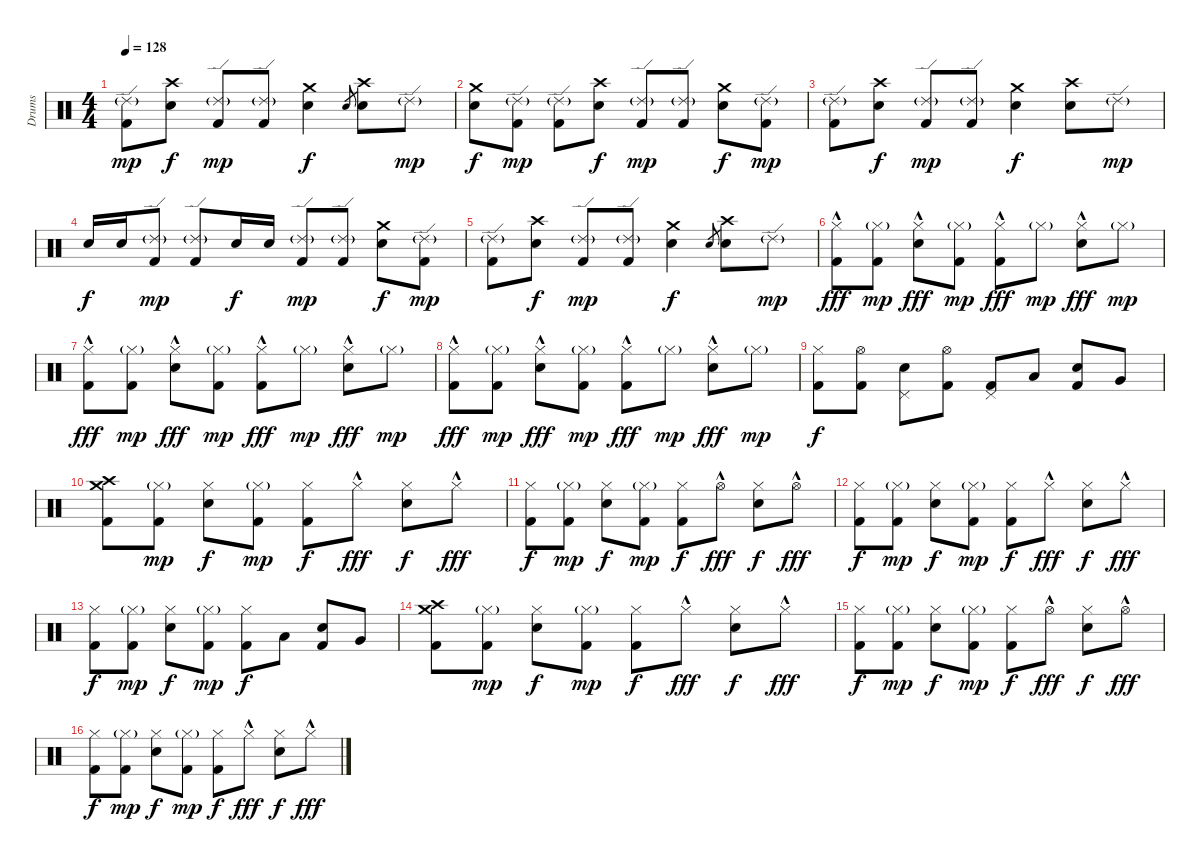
\track ("Drums" "Drums") {instrument percussion}
\staff {score}
\articulation defaults
\ts (4 4)
\tempo 128
\clef neutral
\ks c
("Ride (edge) 2"{g} "Kick (hit) 2").8{dy mp} ("Crash high (hit)" "Snare (hit) 2").8{dy f} ("Ride (edge) 2"{g} "Kick (hit) 2").8{dy mp} ("Ride (edge) 2"{g} "Kick (hit) 2").8 ("Crash medium (hit)" "Snare (hit) 2").4{dy f} "Snare (hit) 2".8{gr} ("Crash high (hit)" "Snare (hit) 2").8 "Ride (edge) 2"{g}.8{dy mp} |
("Crash medium (hit)" "Snare (hit) 2").8{dy f} ("Ride (edge) 2"{g} "Kick (hit) 2").8{dy mp} ("Ride (edge) 2"{g} "Kick (hit) 2").8 ("Crash high (hit)" "Snare (hit) 2").8{dy f} ("Ride (edge) 2"{g} "Kick (hit) 2").8{dy mp} ("Ride (edge) 2"{g} "Kick (hit) 2").8 ("Crash medium (hit)" "Snare (hit) 2").8{dy f} ("Ride (edge) 2"{g} "Kick (hit) 2").8{dy mp} |
("Ride (edge) 2"{g} "Kick (hit) 2").8 ("Crash high (hit)" "Snare (hit) 2").8{dy f} ("Ride (edge) 2"{g} "Kick (hit) 2").8{dy mp} ("Ride (edge) 2"{g} "Kick (hit) 2").8 ("Crash medium (hit)" "Snare (hit) 2").4{dy f} ("Crash high (hit)" "Snare (hit) 2").8 "Ride (edge) 2"{g}.8{dy mp} |
"Snare (hit) 2".16{dy f} "Snare (hit) 2".16 ("Ride (edge) 2"{g} "Kick (hit) 2").8{dy mp} ("Ride (edge) 2"{g} "Kick (hit) 2").8 "Snare (hit) 2".16{dy f} "Snare (hit) 2".16 ("Ride (edge) 2"{g} "Kick (hit) 2").8{dy mp} ("Ride (edge) 2"{g} "Kick (hit) 2").8 ("Crash medium (hit)" "Snare (hit) 2").8{dy f} ("Ride (edge) 2"{g} "Kick (hit) 2").8{dy mp} |
("Ride (edge) 2"{g} "Kick (hit) 2").8 ("Crash high (hit)" "Snare (hit) 2").8{dy f} ("Ride (edge) 2"{g} "Kick (hit) 2").8{dy mp} ("Ride (edge) 2"{g} "Kick (hit) 2").8 ("Crash medium (hit)" "Snare (hit) 2").4{dy f} "Snare (hit) 2".8{gr} ("Crash high (hit)" "Snare (hit) 2").8 "Ride (edge) 2"{g}.8{dy mp} |
("Hi-Hat (closed)"{hac} "Kick (hit) 2").8{dy fff} ("Hi-Hat (closed)"{g} "Kick (hit) 2").8{dy mp} ("Hi-Hat (closed)"{hac} "Snare (hit) 2").8{dy fff} ("Hi-Hat (closed)"{g} "Kick (hit) 2").8{dy mp} ("Hi-Hat (closed)"{hac} "Kick (hit) 2").8{dy fff} "Hi-Hat (closed)"{g}.8{dy mp} ("Hi-Hat (closed)"{hac} "Snare (hit) 2").8{dy fff} "Hi-Hat (closed)"{g}.8{dy mp} |
("Hi-Hat (closed)"{hac} "Kick (hit) 2").8{dy fff} ("Hi-Hat (closed)"{g} "Kick (hit) 2").8{dy mp} ("Hi-Hat (closed)"{hac} "Snare (hit) 2").8{dy fff} ("Hi-Hat (closed)"{g} "Kick (hit) 2").8{dy mp} ("Hi-Hat (closed)"{hac} "Kick (hit) 2").8{dy fff} "Hi-Hat (closed)"{g}.8{dy mp} ("Hi-Hat (closed)"{hac} "Snare (hit) 2").8{dy fff} "Hi-Hat (closed)"{g}.8{dy mp} |
("Hi-Hat (closed)"{hac} "Kick (hit) 2").8{dy fff} ("Hi-Hat (closed)"{g} "Kick (hit) 2").8{dy mp} ("Hi-Hat (closed)"{hac} "Snare (hit) 2").8{dy fff} ("Hi-Hat (closed)"{g} "Kick (hit) 2").8{dy mp} ("Hi-Hat (closed)"{hac} "Kick (hit) 2").8{dy fff} "Hi-Hat (closed)"{g}.8{dy mp} ("Hi-Hat (closed)"{hac} "Snare (hit) 2").8{dy fff} "Hi-Hat (closed)"{g}.8{dy mp} |
("Hi-Hat (closed)" "Kick (hit) 2").8{dy f} ("Hi-Hat (open)" "Kick (hit) 2").8 ("Pedal Hi-Hat (hit)" "Snare (hit) 2").8 ("Hi-Hat (open)" "Kick (hit) 2").8 ("Pedal Hi-Hat (hit)" "Kick (hit) 2").8 "Low Tom (hit)".8 ("Snare (hit) 2" "Kick (hit) 2").8 "Very Low Tom (hit)".8 |
("Crash medium (hit)" "Crash high (hit)" "Kick (hit) 2").8 ("Hi-Hat (closed)"{g} "Kick (hit) 2").8{dy mp} ("Hi-Hat (closed)" "Snare (hit) 2").8{dy f} ("Hi-Hat (closed)"{g} "Kick (hit) 2").8{dy mp} ("Hi-Hat (closed)" "Kick (hit) 2").8{dy f} "Hi-Hat (closed)"{hac}.8{dy fff} ("Hi-Hat (closed)" "Snare (hit) 2").8{dy f} "Hi-Hat (closed)"{hac}.8{dy fff} |
("Hi-Hat (closed)" "Kick (hit) 2").8{dy f} ("Hi-Hat (closed)"{g} "Kick (hit) 2").8{dy mp} ("Hi-Hat (closed)" "Snare (hit) 2").8{dy f} ("Hi-Hat (closed)"{g} "Kick (hit) 2").8{dy mp} ("Hi-Hat (closed)" "Kick (hit) 2").8{dy f} "Hi-Hat (open)"{hac}.8{dy fff} ("Hi-Hat (closed)" "Snare (hit) 2").8{dy f} "Hi-Hat (open)"{hac}.8{dy fff} |
("Hi-Hat (closed)" "Kick (hit) 2").8{dy f} ("Hi-Hat (closed)"{g} "Kick (hit) 2").8{dy mp} ("Hi-Hat (closed)" "Snare (hit) 2").8{dy f} ("Hi-Hat (closed)"{g} "Kick (hit) 2").8{dy mp} ("Hi-Hat (closed)" "Kick (hit) 2").8{dy f} "Hi-Hat (closed)"{hac}.8{dy fff} ("Hi-Hat (closed)" "Snare (hit) 2").8{dy f} "Hi-Hat (closed)"{hac}.8{dy fff} |
("Hi-Hat (closed)" "Kick (hit) 2").8{dy f} ("Hi-Hat (closed)"{g} "Kick (hit) 2").8{dy mp} ("Hi-Hat (closed)" "Snare (hit) 2").8{dy f} ("Hi-Hat (closed)"{g} "Kick (hit) 2").8{dy mp} ("Hi-Hat (closed)" "Kick (hit) 2").8{dy f} "Low Tom (hit)".8 ("Snare (hit) 2" "Kick (hit) 2").8 "Very Low Tom (hit)".8 |
("Crash medium (hit)" "Crash high (hit)" "Kick (hit) 2").8 ("Hi-Hat (closed)"{g} "Kick (hit) 2").8{dy mp} ("Hi-Hat (closed)" "Snare (hit) 2").8{dy f} ("Hi-Hat (closed)"{g} "Kick (hit) 2").8{dy mp} ("Hi-Hat (closed)" "Kick (hit) 2").8{dy f} "Hi-Hat (closed)"{hac}.8{dy fff} ("Hi-Hat (closed)" "Snare (hit) 2").8{dy f} "Hi-Hat (closed)"{hac}.8{dy fff} |
("Hi-Hat (closed)" "Kick (hit) 2").8{dy f} ("Hi-Hat (closed)"{g} "Kick (hit) 2").8{dy mp} ("Hi-Hat (closed)" "Snare (hit) 2").8{dy f} ("Hi-Hat (closed)"{g} "Kick (hit) 2").8{dy mp} ("Hi-Hat (closed)" "Kick (hit) 2").8{dy f} "Hi-Hat (open)"{hac}.8{dy fff} ("Hi-Hat (closed)" "Snare (hit) 2").8{dy f} "Hi-Hat (open)"{hac}.8{dy fff} |
("Hi-Hat (closed)" "Kick (hit) 2").8{dy f} ("Hi-Hat (closed)"{g} "Kick (hit) 2").8{dy mp} ("Hi-Hat (closed)" "Snare (hit) 2").8{dy f} ("Hi-Hat (closed)"{g} "Kick (hit) 2").8{dy mp} ("Hi-Hat (closed)" "Kick (hit) 2").8{dy f} "Hi-Hat (closed)"{hac}.8{dy fff} ("Hi-Hat (closed)" "Snare (hit) 2").8{dy f} "Hi-Hat (closed)"{hac}.8{dy fff}
